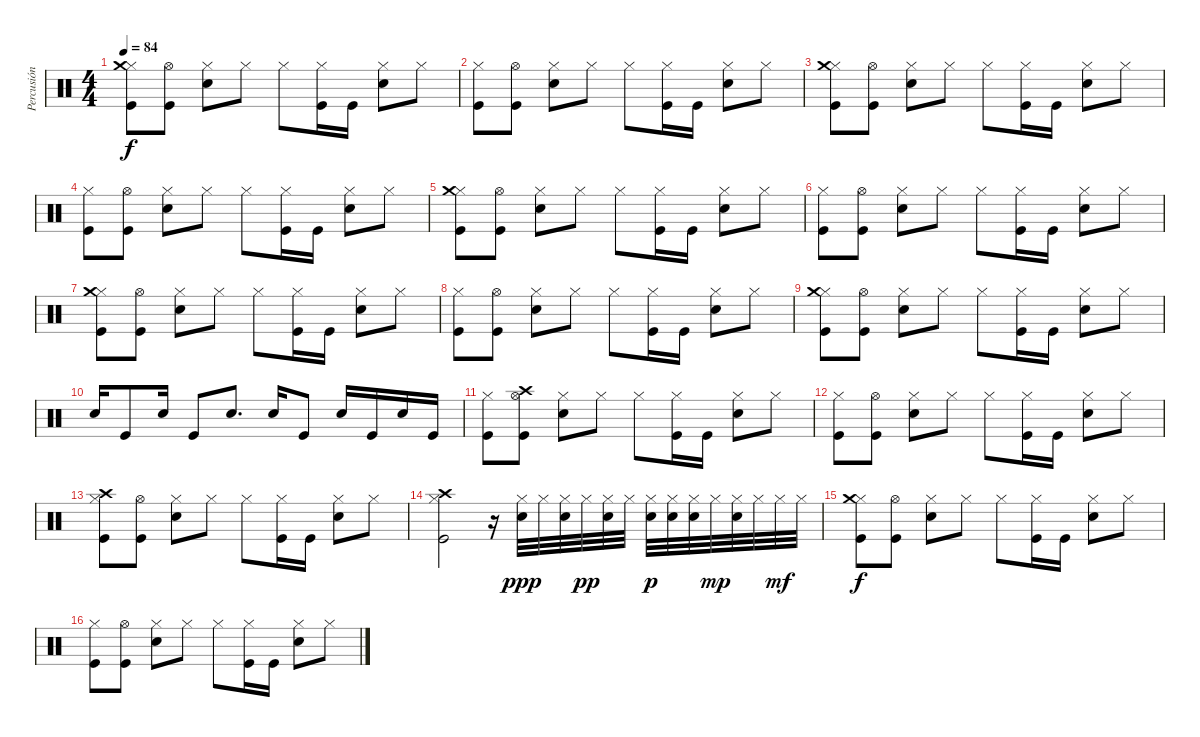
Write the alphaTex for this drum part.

\track ("Percusión" "Percusión") {instrument percussion}
\staff {score}
\articulation defaults
\ts (4 4)
\tempo 84
\clef neutral
\ks c
("Kick (hit)" "Hi-Hat (closed)" "Crash medium (hit)").8{dy f} ("Kick (hit)" "Hi-Hat (open)").8 ("Snare (hit) 2" "Hi-Hat (closed)").8 "Hi-Hat (closed)".8 "Hi-Hat (closed)".8 ("Kick (hit)" "Hi-Hat (closed)").16 "Kick (hit)".16 ("Snare (hit) 2" "Hi-Hat (closed)").8 "Hi-Hat (closed)".8 |
("Kick (hit)" "Hi-Hat (closed)").8 ("Kick (hit)" "Hi-Hat (open)").8 ("Snare (hit) 2" "Hi-Hat (closed)").8 "Hi-Hat (closed)".8 "Hi-Hat (closed)".8 ("Kick (hit)" "Hi-Hat (closed)").16 "Kick (hit)".16 ("Snare (hit) 2" "Hi-Hat (closed)").8 "Hi-Hat (closed)".8 |
("Kick (hit)" "Hi-Hat (closed)" "Crash medium (hit)").8 ("Kick (hit)" "Hi-Hat (open)").8 ("Snare (hit) 2" "Hi-Hat (closed)").8 "Hi-Hat (closed)".8 "Hi-Hat (closed)".8 ("Kick (hit)" "Hi-Hat (closed)").16 "Kick (hit)".16 ("Snare (hit) 2" "Hi-Hat (closed)").8 "Hi-Hat (closed)".8 |
("Kick (hit)" "Hi-Hat (closed)").8 ("Kick (hit)" "Hi-Hat (open)").8 ("Snare (hit) 2" "Hi-Hat (closed)").8 "Hi-Hat (closed)".8 "Hi-Hat (closed)".8 ("Kick (hit)" "Hi-Hat (closed)").16 "Kick (hit)".16 ("Snare (hit) 2" "Hi-Hat (closed)").8 "Hi-Hat (closed)".8 |
("Kick (hit)" "Hi-Hat (closed)" "Crash medium (hit)").8 ("Kick (hit)" "Hi-Hat (open)").8 ("Snare (hit) 2" "Hi-Hat (closed)").8 "Hi-Hat (closed)".8 "Hi-Hat (closed)".8 ("Kick (hit)" "Hi-Hat (closed)").16 "Kick (hit)".16 ("Snare (hit) 2" "Hi-Hat (closed)").8 "Hi-Hat (closed)".8 |
("Kick (hit)" "Hi-Hat (closed)").8 ("Kick (hit)" "Hi-Hat (open)").8 ("Snare (hit) 2" "Hi-Hat (closed)").8 "Hi-Hat (closed)".8 "Hi-Hat (closed)".8 ("Kick (hit)" "Hi-Hat (closed)").16 "Kick (hit)".16 ("Snare (hit) 2" "Hi-Hat (closed)").8 "Hi-Hat (closed)".8 |
("Kick (hit)" "Hi-Hat (closed)" "Crash medium (hit)").8 ("Kick (hit)" "Hi-Hat (open)").8 ("Snare (hit) 2" "Hi-Hat (closed)").8 "Hi-Hat (closed)".8 "Hi-Hat (closed)".8 ("Kick (hit)" "Hi-Hat (closed)").16 "Kick (hit)".16 ("Snare (hit) 2" "Hi-Hat (closed)").8 "Hi-Hat (closed)".8 |
("Kick (hit)" "Hi-Hat (closed)").8 ("Kick (hit)" "Hi-Hat (open)").8 ("Snare (hit) 2" "Hi-Hat (closed)").8 "Hi-Hat (closed)".8 "Hi-Hat (closed)".8 ("Kick (hit)" "Hi-Hat (closed)").16 "Kick (hit)".16 ("Snare (hit) 2" "Hi-Hat (closed)").8 "Hi-Hat (closed)".8 |
("Kick (hit)" "Hi-Hat (closed)" "Crash medium (hit)").8 ("Kick (hit)" "Hi-Hat (open)").8 ("Snare (hit) 2" "Hi-Hat (closed)").8 "Hi-Hat (closed)".8 "Hi-Hat (closed)".8 ("Kick (hit)" "Hi-Hat (closed)").16 "Kick (hit)".16 ("Snare (hit) 2" "Hi-Hat (closed)").8 "Hi-Hat (closed)".8 |
"Snare (hit) 2".16 "Kick (hit)".8 "Snare (hit) 2".16 "Kick (hit)".8 "Snare (hit) 2".8{d} "Snare (hit) 2".16 "Kick (hit)".8 "Snare (hit) 2".16 "Kick (hit)".16 "Snare (hit) 2".16 "Kick (hit)".16 |
("Kick (hit)" "Hi-Hat (closed)").8 ("Kick (hit)" "Hi-Hat (open)" "Crash high (hit)").8 ("Snare (hit) 2" "Hi-Hat (closed)").8 "Hi-Hat (closed)".8 "Hi-Hat (closed)".8 ("Kick (hit)" "Hi-Hat (closed)").16 "Kick (hit)".16 ("Snare (hit) 2" "Hi-Hat (closed)").8 "Hi-Hat (closed)".8 |
("Kick (hit)" "Hi-Hat (closed)").8 ("Kick (hit)" "Hi-Hat (open)").8 ("Snare (hit) 2" "Hi-Hat (closed)").8 "Hi-Hat (closed)".8 "Hi-Hat (closed)".8 ("Kick (hit)" "Hi-Hat (closed)").16 "Kick (hit)".16 ("Snare (hit) 2" "Hi-Hat (closed)").8 "Hi-Hat (closed)".8 |
("Kick (hit)" "Hi-Hat (closed)" "Crash high (hit)").8 ("Kick (hit)" "Hi-Hat (open)").8 ("Snare (hit) 2" "Hi-Hat (closed)").8 "Hi-Hat (closed)".8 "Hi-Hat (closed)".8 ("Kick (hit)" "Hi-Hat (closed)").16 "Kick (hit)".16 ("Snare (hit) 2" "Hi-Hat (closed)").8 "Hi-Hat (closed)".8 |
("Kick (hit)" "Hi-Hat (closed)" "Crash high (hit)").2 r.16 ("Electric Snare (hit)" "Hi-Hat (closed)").32{dy ppp} "Hi-Hat (closed)".32 ("Electric Snare (hit)" "Hi-Hat (closed)").32 "Hi-Hat (closed)".32{dy pp} ("Electric Snare (hit)" "Hi-Hat (closed)").32 "Hi-Hat (closed)".32 ("Electric Snare (hit)" "Hi-Hat (closed)").32{dy p} ("Electric Snare (hit)" "Hi-Hat (closed)").32 ("Electric Snare (hit)" "Hi-Hat (closed)").32 "Hi-Hat (closed)".32{dy mp} ("Electric Snare (hit)" "Hi-Hat (closed)").32 "Hi-Hat (closed)".32 "Hi-Hat (closed)".32{dy mf} "Hi-Hat (closed)".32 |
("Kick (hit)" "Hi-Hat (closed)" "Crash medium (hit)").8{dy f} ("Kick (hit)" "Hi-Hat (open)").8 ("Snare (hit) 2" "Hi-Hat (closed)").8 "Hi-Hat (closed)".8 "Hi-Hat (closed)".8 ("Kick (hit)" "Hi-Hat (closed)").16 "Kick (hit)".16 ("Snare (hit) 2" "Hi-Hat (closed)").8 "Hi-Hat (closed)".8 |
("Kick (hit)" "Hi-Hat (closed)").8 ("Kick (hit)" "Hi-Hat (open)").8 ("Snare (hit) 2" "Hi-Hat (closed)").8 "Hi-Hat (closed)".8 "Hi-Hat (closed)".8 ("Kick (hit)" "Hi-Hat (closed)").16 "Kick (hit)".16 ("Snare (hit) 2" "Hi-Hat (closed)").8 "Hi-Hat (closed)".8
